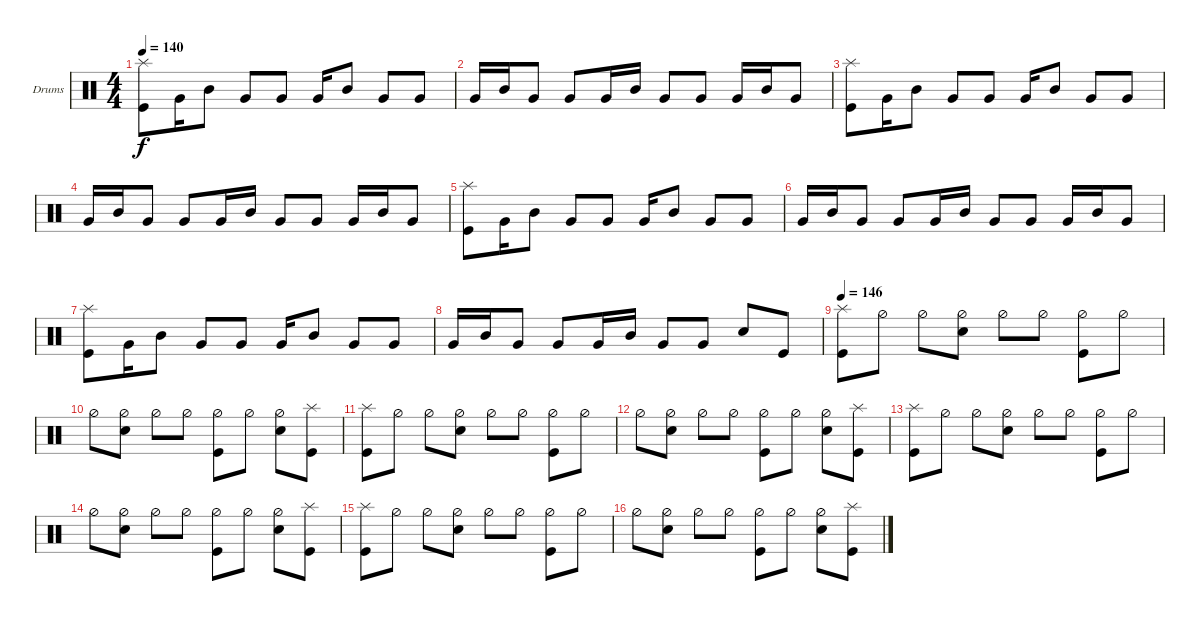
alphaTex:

\bracketExtendMode groupsimilarinstruments
\firstSystemTrackNameOrientation horizontal
\otherSystemsTrackNameOrientation horizontal
\track ("Drumkit" "Drums") {instrument percussion}
\staff {score}
\articulation defaults
\ts (4 4)
\tempo 140
\clef neutral
\scale
0.333333
\ks c
("Kick (hit)" "Splash (hit)").8{dy f} "Very Low Tom (hit)".16 "Mid Tom (hit)".8 "Very Low Tom (hit)".8 "Very Low Tom (hit)".8 "Very Low Tom (hit)".16 "Mid Tom (hit)".8 "Very Low Tom (hit)".8 "Very Low Tom (hit)".8 |
\scale
0.333333 "Very Low Tom (hit)".16 "Mid Tom (hit)".16 "Very Low Tom (hit)".8 "Very Low Tom (hit)".8 "Very Low Tom (hit)".16 "Mid Tom (hit)".16 "Very Low Tom (hit)".8 "Very Low Tom (hit)".8 "Very Low Tom (hit)".16 "Mid Tom (hit)".16 "Very Low Tom (hit)".8 |
\scale
0.333333 ("Kick (hit)" "Splash (hit)").8 "Very Low Tom (hit)".16 "Mid Tom (hit)".8 "Very Low Tom (hit)".8 "Very Low Tom (hit)".8 "Very Low Tom (hit)".16 "Mid Tom (hit)".8 "Very Low Tom (hit)".8 "Very Low Tom (hit)".8 |
\scale
0.333333 "Very Low Tom (hit)".16 "Mid Tom (hit)".16 "Very Low Tom (hit)".8 "Very Low Tom (hit)".8 "Very Low Tom (hit)".16 "Mid Tom (hit)".16 "Very Low Tom (hit)".8 "Very Low Tom (hit)".8 "Very Low Tom (hit)".16 "Mid Tom (hit)".16 "Very Low Tom (hit)".8 |
\scale
0.333333 ("Kick (hit)" "Splash (hit)").8 "Very Low Tom (hit)".16 "Mid Tom (hit)".8 "Very Low Tom (hit)".8 "Very Low Tom (hit)".8 "Very Low Tom (hit)".16 "Mid Tom (hit)".8 "Very Low Tom (hit)".8 "Very Low Tom (hit)".8 |
\scale
0.333333 "Very Low Tom (hit)".16 "Mid Tom (hit)".16 "Very Low Tom (hit)".8 "Very Low Tom (hit)".8 "Very Low Tom (hit)".16 "Mid Tom (hit)".16 "Very Low Tom (hit)".8 "Very Low Tom (hit)".8 "Very Low Tom (hit)".16 "Mid Tom (hit)".16 "Very Low Tom (hit)".8 |
\scale
0.333333 ("Kick (hit)" "Splash (hit)").8 "Very Low Tom (hit)".16 "Mid Tom (hit)".8 "Very Low Tom (hit)".8 "Very Low Tom (hit)".8 "Very Low Tom (hit)".16 "Mid Tom (hit)".8 "Very Low Tom (hit)".8 "Very Low Tom (hit)".8 |
\scale
0.333333 "Very Low Tom (hit)".16 "Mid Tom (hit)".16 "Very Low Tom (hit)".8 "Very Low Tom (hit)".8 "Very Low Tom (hit)".16 "Mid Tom (hit)".16 "Very Low Tom (hit)".8 "Very Low Tom (hit)".8 "Snare (hit) 2".8 "Kick (hit)".8 |
\tempo 146
\scale
0.333333 ("Kick (hit)" "Splash (hit)").8 "Hi-Hat (half)".8 "Hi-Hat (half)".8 ("Snare (hit) 2" "Hi-Hat (half)").8 "Hi-Hat (half)".8 "Hi-Hat (half)".8 ("Kick (hit)" "Hi-Hat (half)").8 "Hi-Hat (half)".8 |
\scale
0.333333 "Hi-Hat (half)".8 ("Snare (hit) 2" "Hi-Hat (half)").8 "Hi-Hat (half)".8 "Hi-Hat (half)".8 ("Kick (hit)" "Hi-Hat (half)").8 "Hi-Hat (half)".8 ("Snare (hit) 2" "Hi-Hat (half)").8 ("Kick (hit)" "Splash (hit)").8 |
\scale
0.333333 ("Kick (hit)" "Splash (hit)").8 "Hi-Hat (half)".8 "Hi-Hat (half)".8 ("Snare (hit) 2" "Hi-Hat (half)").8 "Hi-Hat (half)".8 "Hi-Hat (half)".8 ("Kick (hit)" "Hi-Hat (half)").8 "Hi-Hat (half)".8 |
\scale
0.333333 "Hi-Hat (half)".8 ("Snare (hit) 2" "Hi-Hat (half)").8 "Hi-Hat (half)".8 "Hi-Hat (half)".8 ("Kick (hit)" "Hi-Hat (half)").8 "Hi-Hat (half)".8 ("Snare (hit) 2" "Hi-Hat (half)").8 ("Kick (hit)" "Splash (hit)").8 |
\scale
0.333333 ("Kick (hit)" "Splash (hit)").8 "Hi-Hat (half)".8 "Hi-Hat (half)".8 ("Snare (hit) 2" "Hi-Hat (half)").8 "Hi-Hat (half)".8 "Hi-Hat (half)".8 ("Kick (hit)" "Hi-Hat (half)").8 "Hi-Hat (half)".8 |
\scale
0.333333 "Hi-Hat (half)".8 ("Snare (hit) 2" "Hi-Hat (half)").8 "Hi-Hat (half)".8 "Hi-Hat (half)".8 ("Kick (hit)" "Hi-Hat (half)").8 "Hi-Hat (half)".8 ("Snare (hit) 2" "Hi-Hat (half)").8 ("Kick (hit)" "Splash (hit)").8 |
\scale
0.333333 ("Kick (hit)" "Splash (hit)").8 "Hi-Hat (half)".8 "Hi-Hat (half)".8 ("Snare (hit) 2" "Hi-Hat (half)").8 "Hi-Hat (half)".8 "Hi-Hat (half)".8 ("Kick (hit)" "Hi-Hat (half)").8 "Hi-Hat (half)".8 |
\scale
0.333333 "Hi-Hat (half)".8 ("Snare (hit) 2" "Hi-Hat (half)").8 "Hi-Hat (half)".8 "Hi-Hat (half)".8 ("Kick (hit)" "Hi-Hat (half)").8 "Hi-Hat (half)".8 ("Snare (hit) 2" "Hi-Hat (half)").8 ("Kick (hit)" "Splash (hit)").8
